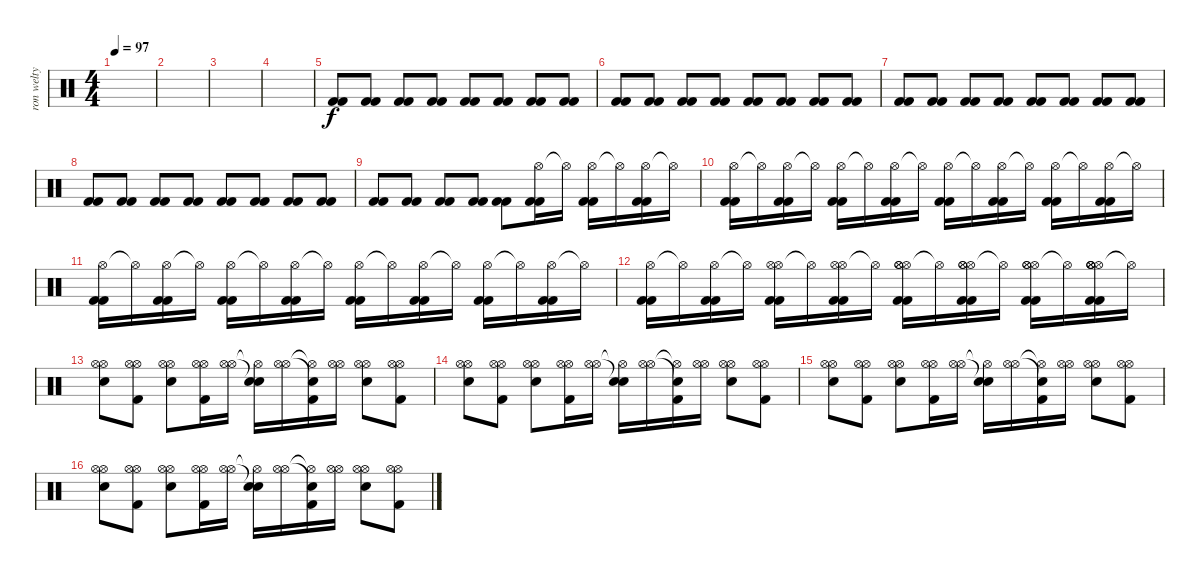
\track ("ron welty" "ron welty") {instrument percussion}
\staff {score}
\articulation defaults
\ts (4 4)
\tempo 97
\clef neutral
\ks c
|
|
|
|
("Kick (hit) 2" "Kick (hit) 2").8 ("Kick (hit) 2" "Kick (hit) 2").8 ("Kick (hit) 2" "Kick (hit) 2").8 ("Kick (hit) 2" "Kick (hit) 2").8 ("Kick (hit) 2" "Kick (hit) 2").8 ("Kick (hit) 2" "Kick (hit) 2").8 ("Kick (hit) 2" "Kick (hit) 2").8 ("Kick (hit) 2" "Kick (hit) 2").8 |
("Kick (hit) 2" "Kick (hit) 2").8 ("Kick (hit) 2" "Kick (hit) 2").8 ("Kick (hit) 2" "Kick (hit) 2").8 ("Kick (hit) 2" "Kick (hit) 2").8 ("Kick (hit) 2" "Kick (hit) 2").8 ("Kick (hit) 2" "Kick (hit) 2").8 ("Kick (hit) 2" "Kick (hit) 2").8 ("Kick (hit) 2" "Kick (hit) 2").8 |
("Kick (hit) 2" "Kick (hit) 2").8 ("Kick (hit) 2" "Kick (hit) 2").8 ("Kick (hit) 2" "Kick (hit) 2").8 ("Kick (hit) 2" "Kick (hit) 2").8 ("Kick (hit) 2" "Kick (hit) 2").8 ("Kick (hit) 2" "Kick (hit) 2").8 ("Kick (hit) 2" "Kick (hit) 2").8 ("Kick (hit) 2" "Kick (hit) 2").8 |
("Kick (hit) 2" "Kick (hit) 2").8 ("Kick (hit) 2" "Kick (hit) 2").8 ("Kick (hit) 2" "Kick (hit) 2").8 ("Kick (hit) 2" "Kick (hit) 2").8 ("Kick (hit) 2" "Kick (hit) 2").8 ("Kick (hit) 2" "Kick (hit) 2").8 ("Kick (hit) 2" "Kick (hit) 2").8 ("Kick (hit) 2" "Kick (hit) 2").8 |
("Kick (hit) 2" "Kick (hit) 2").8 ("Kick (hit) 2" "Kick (hit) 2").8 ("Kick (hit) 2" "Kick (hit) 2").8 ("Kick (hit) 2" "Kick (hit) 2").8 ("Kick (hit) 2" "Kick (hit) 2").8 ("Hi-Hat (open)" "Kick (hit) 2" "Kick (hit) 2").16 "Hi-Hat (open)"{t}.16 ("Hi-Hat (open)" "Kick (hit) 2" "Kick (hit) 2").16 "Hi-Hat (open)"{t}.16 ("Hi-Hat (open)" "Kick (hit) 2" "Kick (hit) 2").16 "Hi-Hat (open)"{t}.16 |
("Hi-Hat (open)" "Kick (hit) 2" "Kick (hit) 2").16 "Hi-Hat (open)"{t}.16 ("Hi-Hat (open)" "Kick (hit) 2" "Kick (hit) 2").16 "Hi-Hat (open)"{t}.16 ("Hi-Hat (open)" "Kick (hit) 2" "Kick (hit) 2").16 "Hi-Hat (open)"{t}.16 ("Hi-Hat (open)" "Kick (hit) 2" "Kick (hit) 2").16 "Hi-Hat (open)"{t}.16 ("Hi-Hat (open)" "Kick (hit) 2" "Kick (hit) 2").16 "Hi-Hat (open)"{t}.16 ("Hi-Hat (open)" "Kick (hit) 2" "Kick (hit) 2").16 "Hi-Hat (open)"{t}.16 ("Hi-Hat (open)" "Kick (hit) 2" "Kick (hit) 2").16 "Hi-Hat (open)"{t}.16 ("Hi-Hat (open)" "Kick (hit) 2" "Kick (hit) 2").16 "Hi-Hat (open)"{t}.16 |
("Hi-Hat (open)" "Kick (hit) 2" "Kick (hit) 2").16 "Hi-Hat (open)"{t}.16 ("Hi-Hat (open)" "Kick (hit) 2" "Kick (hit) 2").16 "Hi-Hat (open)"{t}.16 ("Hi-Hat (open)" "Kick (hit) 2" "Kick (hit) 2").16 "Hi-Hat (open)"{t}.16 ("Hi-Hat (open)" "Kick (hit) 2" "Kick (hit) 2").16 "Hi-Hat (open)"{t}.16 ("Hi-Hat (open)" "Kick (hit) 2" "Kick (hit) 2").16 "Hi-Hat (open)"{t}.16 ("Hi-Hat (open)" "Kick (hit) 2" "Kick (hit) 2").16 "Hi-Hat (open)"{t}.16 ("Hi-Hat (open)" "Kick (hit) 2" "Kick (hit) 2").16 "Hi-Hat (open)"{t}.16 ("Hi-Hat (open)" "Kick (hit) 2" "Kick (hit) 2").16 "Hi-Hat (open)"{t}.16 |
("Hi-Hat (open)" "Kick (hit) 2" "Kick (hit) 2").16 "Hi-Hat (open)"{t}.16 ("Hi-Hat (open)" "Kick (hit) 2" "Kick (hit) 2").16 "Hi-Hat (open)"{t}.16 ("Hi-Hat (open)" "Hi-Hat (open)" "Kick (hit) 2" "Kick (hit) 2").16 "Hi-Hat (open)"{t}.16 ("Hi-Hat (open)" "Hi-Hat (open)" "Kick (hit) 2" "Kick (hit) 2").16 "Hi-Hat (open)"{t}.16 ("Hi-Hat (open)" "Hi-Hat (open)" "Hi-Hat (open)" "Kick (hit) 2" "Kick (hit) 2").16 "Hi-Hat (open)"{t}.16 ("Hi-Hat (open)" "Hi-Hat (open)" "Hi-Hat (open)" "Kick (hit) 2" "Kick (hit) 2").16 "Hi-Hat (open)"{t}.16 ("Hi-Hat (open)" "Hi-Hat (open)" "Hi-Hat (open)" "Kick (hit) 2" "Kick (hit) 2").16 "Hi-Hat (open)"{t}.16 ("Hi-Hat (open)" "Hi-Hat (open)" "Hi-Hat (open)" "Hi-Hat (open)" "Kick (hit) 2" "Kick (hit) 2").16 "Hi-Hat (open)"{t}.16 |
("Hi-Hat (open)" "Hi-Hat (open)" "Electric Snare (hit)").8 ("Hi-Hat (open)" "Hi-Hat (open)" "Kick (hit) 2").8 ("Hi-Hat (open)" "Hi-Hat (open)" "Electric Snare (hit)").8 ("Hi-Hat (open)" "Hi-Hat (open)" "Kick (hit) 2").16 ("Hi-Hat (open)" "Hi-Hat (open)").16 ("Hi-Hat (open)"{t} "Snare (hit)"{t} "Electric Snare (hit)").16 ("Hi-Hat (open)" "Hi-Hat (open)").16 ("Hi-Hat (open)"{t} "Snare (hit)"{t} "Kick (hit) 2").16 ("Hi-Hat (open)" "Hi-Hat (open)").16 ("Hi-Hat (open)" "Hi-Hat (open)" "Electric Snare (hit)").8 ("Hi-Hat (open)" "Hi-Hat (open)" "Kick (hit) 2").8 |
("Hi-Hat (open)" "Hi-Hat (open)" "Electric Snare (hit)").8 ("Hi-Hat (open)" "Hi-Hat (open)" "Kick (hit) 2").8 ("Hi-Hat (open)" "Hi-Hat (open)" "Electric Snare (hit)").8 ("Hi-Hat (open)" "Hi-Hat (open)" "Kick (hit) 2").16 ("Hi-Hat (open)" "Hi-Hat (open)").16 ("Hi-Hat (open)"{t} "Snare (hit)"{t} "Electric Snare (hit)").16 ("Hi-Hat (open)" "Hi-Hat (open)").16 ("Hi-Hat (open)"{t} "Snare (hit)"{t} "Kick (hit) 2").16 ("Hi-Hat (open)" "Hi-Hat (open)").16 ("Hi-Hat (open)" "Hi-Hat (open)" "Electric Snare (hit)").8 ("Hi-Hat (open)" "Hi-Hat (open)" "Kick (hit) 2").8 |
("Hi-Hat (open)" "Hi-Hat (open)" "Electric Snare (hit)").8 ("Hi-Hat (open)" "Hi-Hat (open)" "Kick (hit) 2").8 ("Hi-Hat (open)" "Hi-Hat (open)" "Electric Snare (hit)").8 ("Hi-Hat (open)" "Hi-Hat (open)" "Kick (hit) 2").16 ("Hi-Hat (open)" "Hi-Hat (open)").16 ("Hi-Hat (open)"{t} "Snare (hit)"{t} "Electric Snare (hit)").16 ("Hi-Hat (open)" "Hi-Hat (open)").16 ("Hi-Hat (open)"{t} "Snare (hit)"{t} "Kick (hit) 2").16 ("Hi-Hat (open)" "Hi-Hat (open)").16 ("Hi-Hat (open)" "Hi-Hat (open)" "Electric Snare (hit)").8 ("Hi-Hat (open)" "Hi-Hat (open)" "Kick (hit) 2").8 |
("Hi-Hat (open)" "Hi-Hat (open)" "Electric Snare (hit)").8 ("Hi-Hat (open)" "Hi-Hat (open)" "Kick (hit) 2").8 ("Hi-Hat (open)" "Hi-Hat (open)" "Electric Snare (hit)").8 ("Hi-Hat (open)" "Hi-Hat (open)" "Kick (hit) 2").16 ("Hi-Hat (open)" "Hi-Hat (open)").16 ("Hi-Hat (open)"{t} "Snare (hit)"{t} "Electric Snare (hit)").16 ("Hi-Hat (open)" "Hi-Hat (open)").16 ("Hi-Hat (open)"{t} "Snare (hit)"{t} "Kick (hit) 2").16 ("Hi-Hat (open)" "Hi-Hat (open)").16 ("Hi-Hat (open)" "Hi-Hat (open)" "Electric Snare (hit)").8 ("Hi-Hat (open)" "Hi-Hat (open)" "Kick (hit) 2").8
